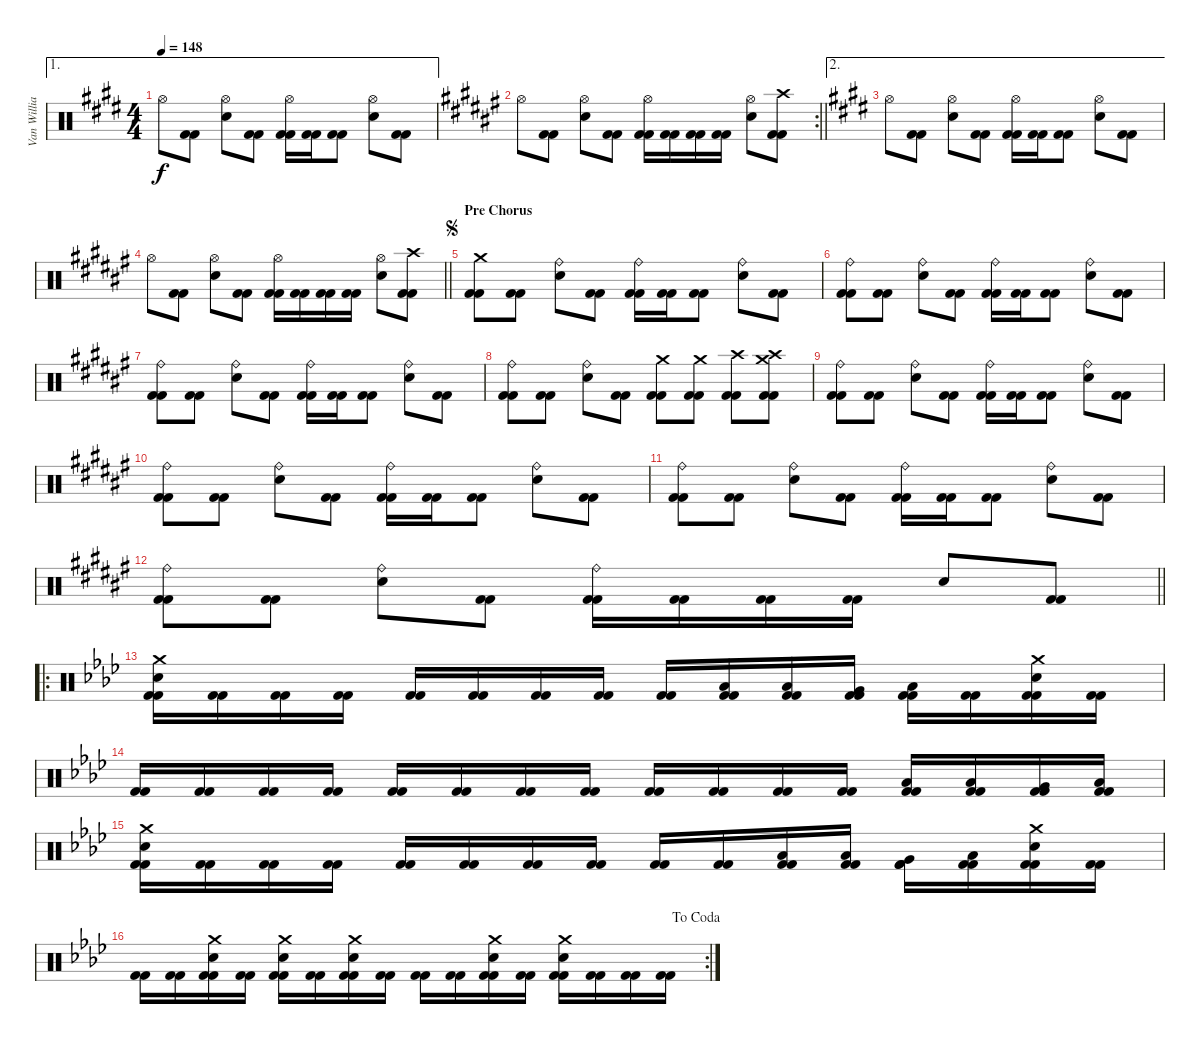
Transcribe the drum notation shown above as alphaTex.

\track ("Van Williams" "Van Willia") {instrument percussion}
\staff {score}
\articulation defaults
\ae 1
\ts (4 4)
\tempo 148
\clef neutral
\ks e "Hi-Hat (open)".8{dy f}
("Kick (hit) 2" "Kick (hit) 2").8 ("Hi-Hat (open)" "Electric Snare (hit)").8 ("Kick (hit) 2" "Kick (hit) 2").8 ("Hi-Hat (open)" "Kick (hit) 2" "Kick (hit) 2").16 ("Kick (hit) 2" "Kick (hit) 2").16 ("Kick (hit) 2" "Kick (hit) 2").8 ("Hi-Hat (open)" "Electric Snare (hit)").8 ("Kick (hit) 2" "Kick (hit) 2").8 |
\rc 2
\barLineRight lightlight
\ks f# "Hi-Hat (open)".8
("Kick (hit) 2" "Kick (hit) 2").8 ("Hi-Hat (open)" "Electric Snare (hit)").8 ("Kick (hit) 2" "Kick (hit) 2").8 ("Hi-Hat (open)" "Kick (hit) 2" "Kick (hit) 2").16 ("Kick (hit) 2" "Kick (hit) 2").16 ("Kick (hit) 2" "Kick (hit) 2").16 ("Kick (hit) 2" "Kick (hit) 2").16 ("Hi-Hat (open)" "Electric Snare (hit)").8 ("Crash high (hit)" "Kick (hit) 2" "Kick (hit) 2").8 |
\ae 2
\ks e "Hi-Hat (open)".8
("Kick (hit) 2" "Kick (hit) 2").8 ("Hi-Hat (open)" "Electric Snare (hit)").8 ("Kick (hit) 2" "Kick (hit) 2").8 ("Hi-Hat (open)" "Kick (hit) 2" "Kick (hit) 2").16 ("Kick (hit) 2" "Kick (hit) 2").16 ("Kick (hit) 2" "Kick (hit) 2").8 ("Hi-Hat (open)" "Electric Snare (hit)").8 ("Kick (hit) 2" "Kick (hit) 2").8 |
\barLineRight lightlight
\ks f# "Hi-Hat (open)".8
("Kick (hit) 2" "Kick (hit) 2").8 ("Hi-Hat (open)" "Electric Snare (hit)").8 ("Kick (hit) 2" "Kick (hit) 2").8 ("Hi-Hat (open)" "Kick (hit) 2" "Kick (hit) 2").16 ("Kick (hit) 2" "Kick (hit) 2").16 ("Kick (hit) 2" "Kick (hit) 2").16 ("Kick (hit) 2" "Kick (hit) 2").16 ("Hi-Hat (open)" "Electric Snare (hit)").8 ("Crash high (hit)" "Kick (hit) 2" "Kick (hit) 2").8 |
\section ("" "Pre Chorus")
\jump segno
("Crash medium (hit)" "Kick (hit) 2" "Kick (hit) 2").8 ("Kick (hit) 2" "Kick (hit) 2").8 ("Ride (bell)" "Electric Snare (hit)").8 ("Kick (hit) 2" "Kick (hit) 2").8 ("Ride (bell)" "Kick (hit) 2" "Kick (hit) 2").16 ("Kick (hit) 2" "Kick (hit) 2").16 ("Kick (hit) 2" "Kick (hit) 2").8 ("Ride (bell)" "Electric Snare (hit)").8 ("Kick (hit) 2" "Kick (hit) 2").8 |
("Ride (bell)" "Kick (hit) 2" "Kick (hit) 2").8 ("Kick (hit) 2" "Kick (hit) 2").8 ("Ride (bell)" "Electric Snare (hit)").8 ("Kick (hit) 2" "Kick (hit) 2").8 ("Ride (bell)" "Kick (hit) 2" "Kick (hit) 2").16 ("Kick (hit) 2" "Kick (hit) 2").16 ("Kick (hit) 2" "Kick (hit) 2").8 ("Ride (bell)" "Electric Snare (hit)").8 ("Kick (hit) 2" "Kick (hit) 2").8 |
("Ride (bell)" "Kick (hit) 2" "Kick (hit) 2").8 ("Kick (hit) 2" "Kick (hit) 2").8 ("Ride (bell)" "Electric Snare (hit)").8 ("Kick (hit) 2" "Kick (hit) 2").8 ("Ride (bell)" "Kick (hit) 2" "Kick (hit) 2").16 ("Kick (hit) 2" "Kick (hit) 2").16 ("Kick (hit) 2" "Kick (hit) 2").8 ("Ride (bell)" "Electric Snare (hit)").8 ("Kick (hit) 2" "Kick (hit) 2").8 |
("Ride (bell)" "Kick (hit) 2" "Kick (hit) 2").8 ("Kick (hit) 2" "Kick (hit) 2").8 ("Ride (bell)" "Electric Snare (hit)").8 ("Kick (hit) 2" "Kick (hit) 2").8 ("Crash medium (hit)" "Kick (hit) 2" "Kick (hit) 2").8 ("Crash medium (hit)" "Kick (hit) 2" "Kick (hit) 2").8 ("Crash high (hit)" "Kick (hit) 2" "Kick (hit) 2").8 ("Crash high (hit)" "Crash medium (hit)" "Kick (hit) 2" "Kick (hit) 2").8 |
("Ride (bell)" "Kick (hit) 2" "Kick (hit) 2").8 ("Kick (hit) 2" "Kick (hit) 2").8 ("Ride (bell)" "Electric Snare (hit)").8 ("Kick (hit) 2" "Kick (hit) 2").8 ("Ride (bell)" "Kick (hit) 2" "Kick (hit) 2").16 ("Kick (hit) 2" "Kick (hit) 2").16 ("Kick (hit) 2" "Kick (hit) 2").8 ("Ride (bell)" "Electric Snare (hit)").8 ("Kick (hit) 2" "Kick (hit) 2").8 |
("Ride (bell)" "Kick (hit) 2" "Kick (hit) 2").8 ("Kick (hit) 2" "Kick (hit) 2").8 ("Ride (bell)" "Electric Snare (hit)").8 ("Kick (hit) 2" "Kick (hit) 2").8 ("Ride (bell)" "Kick (hit) 2" "Kick (hit) 2").16 ("Kick (hit) 2" "Kick (hit) 2").16 ("Kick (hit) 2" "Kick (hit) 2").8 ("Ride (bell)" "Electric Snare (hit)").8 ("Kick (hit) 2" "Kick (hit) 2").8 |
("Ride (bell)" "Kick (hit) 2" "Kick (hit) 2").8 ("Kick (hit) 2" "Kick (hit) 2").8 ("Ride (bell)" "Electric Snare (hit)").8 ("Kick (hit) 2" "Kick (hit) 2").8 ("Ride (bell)" "Kick (hit) 2" "Kick (hit) 2").16 ("Kick (hit) 2" "Kick (hit) 2").16 ("Kick (hit) 2" "Kick (hit) 2").8 ("Ride (bell)" "Electric Snare (hit)").8 ("Kick (hit) 2" "Kick (hit) 2").8 |
\barLineRight lightlight
("Ride (bell)" "Kick (hit) 2" "Kick (hit) 2").8 ("Kick (hit) 2" "Kick (hit) 2").8 ("Ride (bell)" "Electric Snare (hit)").8 ("Kick (hit) 2" "Kick (hit) 2").8 ("Ride (bell)" "Kick (hit) 2" "Kick (hit) 2").16 ("Kick (hit) 2" "Kick (hit) 2").16 ("Kick (hit) 2" "Kick (hit) 2").16 ("Kick (hit) 2" "Kick (hit) 2").16 "Electric Snare (hit)".8 ("Kick (hit) 2" "Kick (hit) 2").8 |
\ro
\ks ab
("Crash medium (hit)" "Electric Snare (hit)" "Kick (hit) 2" "Kick (hit) 2").16 ("Kick (hit) 2" "Kick (hit) 2").16 ("Kick (hit) 2" "Kick (hit) 2").16 ("Kick (hit) 2" "Kick (hit) 2").16 ("Kick (hit) 2" "Kick (hit) 2").16 ("Kick (hit) 2" "Kick (hit) 2").16 ("Kick (hit) 2" "Kick (hit) 2").16 ("Kick (hit) 2" "Kick (hit) 2").16 ("Kick (hit) 2" "Kick (hit) 2").16 ("Low Tom (hit)" "Kick (hit) 2" "Kick (hit) 2").16 ("Low Tom (hit)" "Kick (hit) 2" "Kick (hit) 2").16 ("Very Low Tom (hit)" "Kick (hit) 2" "Kick (hit) 2").16 ("Low Floor Tom (hit)" "Kick (hit) 2" "Kick (hit) 2").16 ("Kick (hit) 2" "Kick (hit) 2").16 ("Crash medium (hit)" "Electric Snare (hit)" "Kick (hit) 2" "Kick (hit) 2").16 ("Kick (hit) 2" "Kick (hit) 2").16 |
("Kick (hit) 2" "Kick (hit) 2").16 ("Kick (hit) 2" "Kick (hit) 2").16 ("Kick (hit) 2" "Kick (hit) 2").16 ("Kick (hit) 2" "Kick (hit) 2").16 ("Kick (hit) 2" "Kick (hit) 2").16 ("Kick (hit) 2" "Kick (hit) 2").16 ("Kick (hit) 2" "Kick (hit) 2").16 ("Kick (hit) 2" "Kick (hit) 2").16 ("Kick (hit) 2" "Kick (hit) 2").16 ("Kick (hit) 2" "Kick (hit) 2").16 ("Kick (hit) 2" "Kick (hit) 2").16 ("Kick (hit) 2" "Kick (hit) 2").16 ("Low Tom (hit)" "Kick (hit) 2" "Kick (hit) 2").16 ("Low Tom (hit)" "Kick (hit) 2" "Kick (hit) 2").16 ("Very Low Tom (hit)" "Kick (hit) 2" "Kick (hit) 2").16 ("Low Floor Tom (hit)" "Kick (hit) 2" "Kick (hit) 2").16 |
("Crash medium (hit)" "Electric Snare (hit)" "Kick (hit) 2" "Kick (hit) 2").16 ("Kick (hit) 2" "Kick (hit) 2").16 ("Kick (hit) 2" "Kick (hit) 2").16 ("Kick (hit) 2" "Kick (hit) 2").16 ("Kick (hit) 2" "Kick (hit) 2").16 ("Kick (hit) 2" "Kick (hit) 2").16 ("Kick (hit) 2" "Kick (hit) 2").16 ("Kick (hit) 2" "Kick (hit) 2").16 ("Kick (hit) 2" "Kick (hit) 2").16 ("Kick (hit) 2" "Kick (hit) 2").16 ("Low Tom (hit)" "Kick (hit) 2" "Kick (hit) 2").16 ("Low Tom (hit)" "Kick (hit) 2" "Kick (hit) 2").16 ("Very Low Tom (hit)" "Kick (hit) 2" "Kick (hit) 2").16 ("Low Floor Tom (hit)" "Kick (hit) 2" "Kick (hit) 2").16 ("Crash medium (hit)" "Electric Snare (hit)" "Kick (hit) 2" "Kick (hit) 2").16 ("Kick (hit) 2" "Kick (hit) 2").16 |
\rc 2
\jump dacoda
("Kick (hit) 2" "Kick (hit) 2").16 ("Kick (hit) 2" "Kick (hit) 2").16 ("Crash medium (hit)" "Electric Snare (hit)" "Kick (hit) 2" "Kick (hit) 2").16 ("Kick (hit) 2" "Kick (hit) 2").16 ("Crash medium (hit)" "Electric Snare (hit)" "Kick (hit) 2" "Kick (hit) 2").16 ("Kick (hit) 2" "Kick (hit) 2").16 ("Crash medium (hit)" "Electric Snare (hit)" "Kick (hit) 2" "Kick (hit) 2").16 ("Kick (hit) 2" "Kick (hit) 2").16 ("Kick (hit) 2" "Kick (hit) 2").16 ("Kick (hit) 2" "Kick (hit) 2").16 ("Crash medium (hit)" "Electric Snare (hit)" "Kick (hit) 2" "Kick (hit) 2").16 ("Kick (hit) 2" "Kick (hit) 2").16 ("Crash medium (hit)" "Electric Snare (hit)" "Kick (hit) 2" "Kick (hit) 2").16 ("Kick (hit) 2" "Kick (hit) 2").16 ("Kick (hit) 2" "Kick (hit) 2").16 ("Kick (hit) 2" "Kick (hit) 2").16
